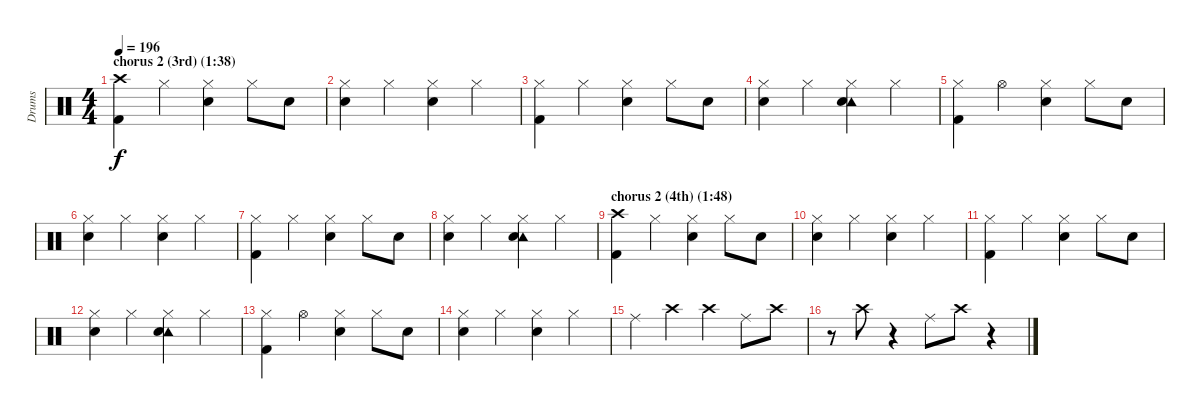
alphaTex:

\track ("Drums" "Drums") {instrument percussion}
\staff {score}
\articulation defaults
\ts (4 4)
\section ("" "chorus 2 (3rd) (1:38)")
\tempo 196
\clef neutral
\ks c
("Crash high (hit)" "Kick (hit) 2").4{dy f} "Hi-Hat (closed)".4 ("Hi-Hat (closed)" "Snare (hit) 2").4 "Hi-Hat (closed)".8 "Snare (hit) 2".8 |
("Hi-Hat (closed)" "Snare (hit) 2").4 "Hi-Hat (closed)".4 ("Hi-Hat (closed)" "Snare (hit) 2").4 "Hi-Hat (closed)".4 |
("Hi-Hat (closed)" "Kick (hit) 2").4 "Hi-Hat (closed)".4 ("Hi-Hat (closed)" "Snare (hit) 2").4 "Hi-Hat (closed)".8 "Snare (hit) 2".8 |
("Hi-Hat (closed)" "Snare (hit) 2").4 "Hi-Hat (closed)".4 ("Hi-Hat (closed)" "Tambourine (hit)" "Snare (hit) 2").4 "Hi-Hat (closed)".4 |
("Hi-Hat (closed)" "Kick (hit) 2").4 "Hi-Hat (open)".4 ("Hi-Hat (closed)" "Snare (hit) 2").4 "Hi-Hat (closed)".8 "Snare (hit) 2".8 |
("Hi-Hat (closed)" "Snare (hit) 2").4 "Hi-Hat (closed)".4 ("Hi-Hat (closed)" "Snare (hit) 2").4 "Hi-Hat (closed)".4 |
("Hi-Hat (closed)" "Kick (hit) 2").4 "Hi-Hat (closed)".4 ("Hi-Hat (closed)" "Snare (hit) 2").4 "Hi-Hat (closed)".8 "Snare (hit) 2".8 |
("Hi-Hat (closed)" "Snare (hit) 2").4 "Hi-Hat (closed)".4 ("Hi-Hat (closed)" "Tambourine (hit)" "Snare (hit) 2").4 "Hi-Hat (closed)".4 |
\section ("" "chorus 2 (4th) (1:48)")
("Crash high (hit)" "Kick (hit) 2").4 "Hi-Hat (closed)".4 ("Hi-Hat (closed)" "Snare (hit) 2").4 "Hi-Hat (closed)".8 "Snare (hit) 2".8 |
("Hi-Hat (closed)" "Snare (hit) 2").4 "Hi-Hat (closed)".4 ("Hi-Hat (closed)" "Snare (hit) 2").4 "Hi-Hat (closed)".4 |
("Hi-Hat (closed)" "Kick (hit) 2").4 "Hi-Hat (closed)".4 ("Hi-Hat (closed)" "Snare (hit) 2").4 "Hi-Hat (closed)".8 "Snare (hit) 2".8 |
("Hi-Hat (closed)" "Snare (hit) 2").4 "Hi-Hat (closed)".4 ("Hi-Hat (closed)" "Tambourine (hit)" "Snare (hit) 2").4 "Hi-Hat (closed)".4 |
("Hi-Hat (closed)" "Kick (hit) 2").4 "Hi-Hat (open)".4 ("Hi-Hat (closed)" "Snare (hit) 2").4 "Hi-Hat (closed)".8 "Snare (hit) 2".8 |
("Hi-Hat (closed)" "Snare (hit) 2").4 "Hi-Hat (closed)".4 ("Hi-Hat (closed)" "Snare (hit) 2").4 "Hi-Hat (closed)".4 |
"Ride (middle)".4 "Crash high (hit)".4 "Crash high (hit)".4 "Ride (middle)".8 "Crash high (hit)".8 |
r.8 "Crash high (hit)".8 r.4 "Ride (middle)".8 "Crash high (hit)".8 r.4
